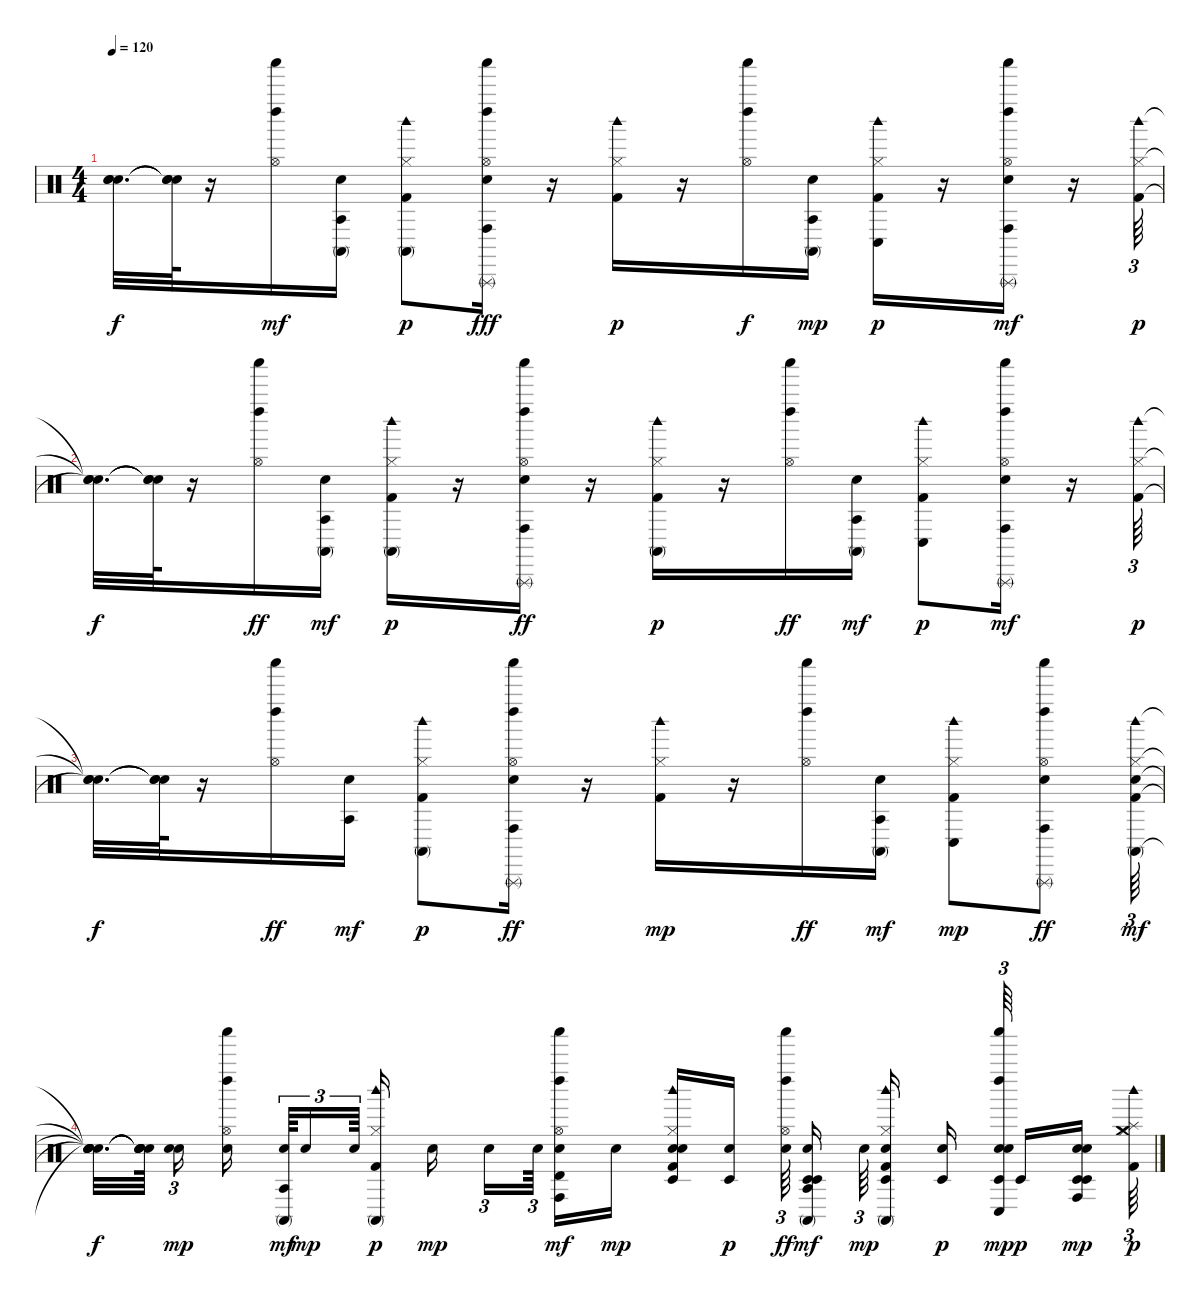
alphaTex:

\track "" {instrument percussion}
\staff {score}
\articulation defaults
\ts (4 4)
\tempo 120
\clef neutral
\ks c
("Snare (hit)"{t} "Snare (hit)"{t} "Snare (hit)"{t}).32{d dy f} ("Snare (hit)"{t} "Snare (hit)"{t} "Snare (hit)"{t}).64 r.16 ("Shaker (hit)" "Left Maraca (hit)" "Hi-Hat (open)").16{dy mf} ("Electric Snare (hit)" "Conga high (mute)" "Agogo tow (hit)").16 ("Kick (hit) 2" "Conga high (mute)" "Hi-Hat (closed)" "Woodblock high (hit)").8{dy p} ("Shaker (hit)" "Left Maraca (hit)" "Electric Snare (hit)" "Conga high (hit)" "Hi-Hat (open)" "Triangle (rnute)").16{dy fff} r.16 ("Kick (hit) 2" "Hi-Hat (closed)" "Woodblock high (hit)").16{dy p} r.16 ("Shaker (hit)" "Left Maraca (hit)" "Hi-Hat (open)").16{dy f} ("Electric Snare (hit)" "Conga high (mute)" "Agogo tow (hit)").16{dy mp} ("Kick (hit) 2" "Conga low (hit)" "Hi-Hat (closed)" "Woodblock high (hit)").16{dy p} r.16 ("Shaker (hit)" "Left Maraca (hit)" "Electric Snare (hit)" "Conga high (hit)" "Hi-Hat (open)" "Triangle (rnute)").16{dy mf} r.16 ("Kick (hit) 2" "Hi-Hat (closed)" "Woodblock high (hit)").64{tu (3 2) dy p} |
("Snare (hit)"{t} "Snare (hit)"{t} "Snare (hit)"{t}).32{d dy f} ("Snare (hit)"{t} "Snare (hit)"{t} "Snare (hit)"{t}).64 r.16 ("Shaker (hit)" "Left Maraca (hit)" "Hi-Hat (open)").16{dy ff} ("Electric Snare (hit)" "Conga high (mute)" "Agogo tow (hit)").16{dy mf} ("Kick (hit) 2" "Conga high (mute)" "Hi-Hat (closed)" "Woodblock high (hit)").16{dy p} r.16 ("Shaker (hit)" "Left Maraca (hit)" "Electric Snare (hit)" "Conga high (hit)" "Hi-Hat (open)" "Triangle (rnute)").16{dy ff} r.16 ("Kick (hit) 2" "Conga high (mute)" "Hi-Hat (closed)" "Woodblock high (hit)").16{dy p} r.16 ("Shaker (hit)" "Left Maraca (hit)" "Hi-Hat (open)").16{dy ff} ("Electric Snare (hit)" "Conga high (mute)" "Agogo tow (hit)").16{dy mf} ("Kick (hit) 2" "Conga low (hit)" "Hi-Hat (closed)" "Woodblock high (hit)").8{dy p} ("Shaker (hit)" "Left Maraca (hit)" "Electric Snare (hit)" "Conga high (hit)" "Hi-Hat (open)" "Triangle (rnute)").16{dy mf} r.16 ("Kick (hit) 2" "Hi-Hat (closed)" "Woodblock high (hit)").64{tu (3 2) dy p} |
("Snare (hit)"{t} "Snare (hit)"{t} "Snare (hit)"{t}).32{d dy f} ("Snare (hit)"{t} "Snare (hit)"{t} "Snare (hit)"{t}).64 r.16 ("Shaker (hit)" "Left Maraca (hit)" "Hi-Hat (open)").16{dy ff} ("Electric Snare (hit)" "Agogo tow (hit)").16{dy mf} ("Kick (hit) 2" "Conga high (mute)" "Hi-Hat (closed)" "Woodblock high (hit)").8{dy p} ("Shaker (hit)" "Left Maraca (hit)" "Electric Snare (hit)" "Conga high (hit)" "Hi-Hat (open)" "Triangle (rnute)").16{dy ff} r.16 ("Kick (hit) 2" "Hi-Hat (closed)" "Woodblock high (hit)").16{dy mp} r.16 ("Shaker (hit)" "Left Maraca (hit)" "Hi-Hat (open)").16{dy ff} ("Electric Snare (hit)" "Conga high (mute)" "Agogo tow (hit)").16{dy mf} ("Kick (hit) 2" "Conga low (hit)" "Hi-Hat (closed)" "Woodblock high (hit)").8{dy mp} ("Shaker (hit)" "Left Maraca (hit)" "Electric Snare (hit)" "Conga high (hit)" "Hi-Hat (open)" "Triangle (rnute)").8{dy ff} ("Kick (hit) 2" "Conga high (mute)" "Hi-Hat (closed)" "Woodblock high (hit)" "Snare (hit) 2").64{tu (3 2) dy mf} |
("Snare (hit)"{t} "Snare (hit)"{t} "Snare (hit)"{t} "Snare (hit)"{t} "Snare (hit)"{t}).32{d dy f} ("Snare (hit)"{t} "Snare (hit)"{t} "Snare (hit)"{t} "Snare (hit)"{t} "Snare (hit)"{t}).64{beam splitsecondary} ("Snare (hit) 2" "Snare (hit) 2").16{tu (3 2) dy mp beam splitsecondary} ("Snare (hit) 2" "Shaker (hit)" "Left Maraca (hit)" "Hi-Hat (open)").16{beam splitsecondary} ("Snare (hit) 2" "Conga high (mute)" "Agogo tow (hit)").64{tu (3 2) dy mf} "Snare (hit) 2".16{tu (3 2) dy mp} "Snare (hit) 2".64{tu (3 2) beam splitsecondary} ("Kick (hit) 2" "Conga high (mute)" "Hi-Hat (closed)" "Woodblock high (hit)").16{dy p} "Snare (hit) 2".16{dy mp beam splitsecondary} "Snare (hit) 2".16{tu (3 2)} "Snare (hit) 2".64{tu (3 2) beam splitsecondary} ("Shaker (hit)" "Left Maraca (hit)" "Conga high (hit)" "Electric Snare (hit)" "Hi-Hat (open)" "Timbale high (hit)").16{dy mf} "Snare (hit) 2".16{dy mp} ("Snare (hit) 2" "Kick (hit) 2" "Hi-Hat (closed)" "Woodblock high (hit)" "Timbale low (hit)" "Snare (hit) 2").16 ("Snare (hit) 2" "Timbale low (hit)").16{dy p beam splitsecondary} ("Snare (hit) 2" "Shaker (hit)" "Left Maraca (hit)" "Hi-Hat (open)").64{tu (3 2) dy ff beam splitsecondary} ("Timbale low (hit)" "Snare (hit) 2" "Timbale low (hit)" "Conga high (mute)" "Agogo tow (hit)").16{dy mf beam splitsecondary} "Snare (hit) 2".64{tu (3 2) dy mp} ("Timbale low (hit)" "Snare (hit) 2" "Kick (hit) 2" "Conga high (mute)" "Hi-Hat (closed)" "Woodblock high (hit)").16 ("Snare (hit) 2" "Timbale low (hit)").16{dy p beam splitsecondary} ("Snare (hit) 2" "Timbale low (hit)" "Snare (hit) 2" "Shaker (hit)" "Left Maraca (hit)" "Conga low (hit)").64{tu (3 2) dy mp beam splitsecondary} "Timbale low (hit)".16{dy p} ("Snare (hit) 2" "Timbale low (hit)" "Conga high (hit)" "Snare (hit) 2" "Timbale low (hit)").16{dy mp} ("Kick (hit) 2" "Hi-Hat (closed)" "Crash medium (hit)" "Splash (hit)" "Woodblock high (hit)").64{tu (3 2) dy p}
